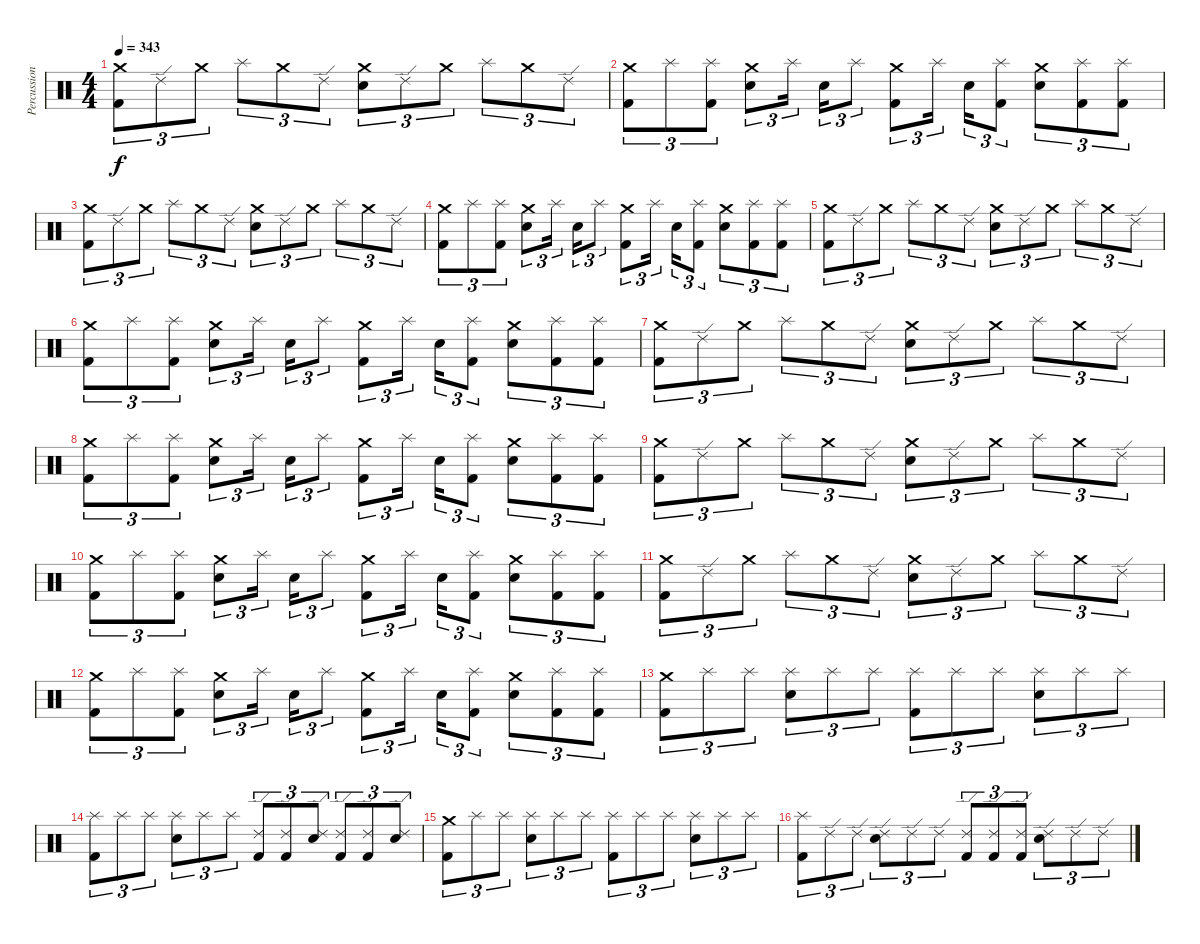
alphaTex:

\track ("Percussion" "Percussion") {instrument percussion}
\staff {score}
\articulation defaults
\ts (4 4)
\tempo 343
\clef neutral
\ks c
("Crash medium (hit)" "Kick (hit) 2").8{tu (3 2) dy f} "Ride (edge) 2".8{tu (3 2)} "Crash medium (hit)".8{tu (3 2)} "Splash (hit)".8{tu (3 2)} "Crash medium (hit)".8{tu (3 2)} "Ride (edge) 2".8{tu (3 2)} ("Crash medium (hit)" "Snare (hit) 2").8{tu (3 2)} "Ride (edge) 2".8{tu (3 2)} "Crash medium (hit)".8{tu (3 2)} "Splash (hit)".8{tu (3 2)} "Crash medium (hit)".8{tu (3 2)} "Ride (edge) 2".8{tu (3 2)} |
("Crash medium (hit)" "Kick (hit) 2").8{tu (3 2)} "Splash (hit)".8{tu (3 2)} ("Splash (hit)" "Kick (hit) 2").8{tu (3 2)} ("Crash medium (hit)" "Snare (hit) 2").8{tu (3 2)} "Splash (hit)".16{tu (3 2)} "Snare (hit) 2".16{tu (3 2)} "Splash (hit)".8{tu (3 2)} ("Crash medium (hit)" "Kick (hit) 2").8{tu (3 2)} "Splash (hit)".16{tu (3 2)} "Snare (hit) 2".16{tu (3 2)} ("Splash (hit)" "Kick (hit) 2").8{tu (3 2)} ("Crash medium (hit)" "Snare (hit) 2").8{tu (3 2)} ("Splash (hit)" "Kick (hit) 2").8{tu (3 2)} ("Splash (hit)" "Kick (hit) 2").8{tu (3 2)} |
("Crash medium (hit)" "Kick (hit) 2").8{tu (3 2)} "Ride (edge) 2".8{tu (3 2)} "Crash medium (hit)".8{tu (3 2)} "Splash (hit)".8{tu (3 2)} "Crash medium (hit)".8{tu (3 2)} "Ride (edge) 2".8{tu (3 2)} ("Crash medium (hit)" "Snare (hit) 2").8{tu (3 2)} "Ride (edge) 2".8{tu (3 2)} "Crash medium (hit)".8{tu (3 2)} "Splash (hit)".8{tu (3 2)} "Crash medium (hit)".8{tu (3 2)} "Ride (edge) 2".8{tu (3 2)} |
("Crash medium (hit)" "Kick (hit) 2").8{tu (3 2)} "Splash (hit)".8{tu (3 2)} ("Splash (hit)" "Kick (hit) 2").8{tu (3 2)} ("Crash medium (hit)" "Snare (hit) 2").8{tu (3 2)} "Splash (hit)".16{tu (3 2)} "Snare (hit) 2".16{tu (3 2)} "Splash (hit)".8{tu (3 2)} ("Crash medium (hit)" "Kick (hit) 2").8{tu (3 2)} "Splash (hit)".16{tu (3 2)} "Snare (hit) 2".16{tu (3 2)} ("Splash (hit)" "Kick (hit) 2").8{tu (3 2)} ("Crash medium (hit)" "Snare (hit) 2").8{tu (3 2)} ("Splash (hit)" "Kick (hit) 2").8{tu (3 2)} ("Splash (hit)" "Kick (hit) 2").8{tu (3 2)} |
("Crash medium (hit)" "Kick (hit) 2").8{tu (3 2)} "Ride (edge) 2".8{tu (3 2)} "Crash medium (hit)".8{tu (3 2)} "Splash (hit)".8{tu (3 2)} "Crash medium (hit)".8{tu (3 2)} "Ride (edge) 2".8{tu (3 2)} ("Crash medium (hit)" "Snare (hit) 2").8{tu (3 2)} "Ride (edge) 2".8{tu (3 2)} "Crash medium (hit)".8{tu (3 2)} "Splash (hit)".8{tu (3 2)} "Crash medium (hit)".8{tu (3 2)} "Ride (edge) 2".8{tu (3 2)} |
("Crash medium (hit)" "Kick (hit) 2").8{tu (3 2)} "Splash (hit)".8{tu (3 2)} ("Splash (hit)" "Kick (hit) 2").8{tu (3 2)} ("Crash medium (hit)" "Snare (hit) 2").8{tu (3 2)} "Splash (hit)".16{tu (3 2)} "Snare (hit) 2".16{tu (3 2)} "Splash (hit)".8{tu (3 2)} ("Crash medium (hit)" "Kick (hit) 2").8{tu (3 2)} "Splash (hit)".16{tu (3 2)} "Snare (hit) 2".16{tu (3 2)} ("Splash (hit)" "Kick (hit) 2").8{tu (3 2)} ("Crash medium (hit)" "Snare (hit) 2").8{tu (3 2)} ("Splash (hit)" "Kick (hit) 2").8{tu (3 2)} ("Splash (hit)" "Kick (hit) 2").8{tu (3 2)} |
("Crash medium (hit)" "Kick (hit) 2").8{tu (3 2)} "Ride (edge) 2".8{tu (3 2)} "Crash medium (hit)".8{tu (3 2)} "Splash (hit)".8{tu (3 2)} "Crash medium (hit)".8{tu (3 2)} "Ride (edge) 2".8{tu (3 2)} ("Crash medium (hit)" "Snare (hit) 2").8{tu (3 2)} "Ride (edge) 2".8{tu (3 2)} "Crash medium (hit)".8{tu (3 2)} "Splash (hit)".8{tu (3 2)} "Crash medium (hit)".8{tu (3 2)} "Ride (edge) 2".8{tu (3 2)} |
("Crash medium (hit)" "Kick (hit) 2").8{tu (3 2)} "Splash (hit)".8{tu (3 2)} ("Splash (hit)" "Kick (hit) 2").8{tu (3 2)} ("Crash medium (hit)" "Snare (hit) 2").8{tu (3 2)} "Splash (hit)".16{tu (3 2)} "Snare (hit) 2".16{tu (3 2)} "Splash (hit)".8{tu (3 2)} ("Crash medium (hit)" "Kick (hit) 2").8{tu (3 2)} "Splash (hit)".16{tu (3 2)} "Snare (hit) 2".16{tu (3 2)} ("Splash (hit)" "Kick (hit) 2").8{tu (3 2)} ("Crash medium (hit)" "Snare (hit) 2").8{tu (3 2)} ("Splash (hit)" "Kick (hit) 2").8{tu (3 2)} ("Splash (hit)" "Kick (hit) 2").8{tu (3 2)} |
("Crash medium (hit)" "Kick (hit) 2").8{tu (3 2)} "Ride (edge) 2".8{tu (3 2)} "Crash medium (hit)".8{tu (3 2)} "Splash (hit)".8{tu (3 2)} "Crash medium (hit)".8{tu (3 2)} "Ride (edge) 2".8{tu (3 2)} ("Crash medium (hit)" "Snare (hit) 2").8{tu (3 2)} "Ride (edge) 2".8{tu (3 2)} "Crash medium (hit)".8{tu (3 2)} "Splash (hit)".8{tu (3 2)} "Crash medium (hit)".8{tu (3 2)} "Ride (edge) 2".8{tu (3 2)} |
("Crash medium (hit)" "Kick (hit) 2").8{tu (3 2)} "Splash (hit)".8{tu (3 2)} ("Splash (hit)" "Kick (hit) 2").8{tu (3 2)} ("Crash medium (hit)" "Snare (hit) 2").8{tu (3 2)} "Splash (hit)".16{tu (3 2)} "Snare (hit) 2".16{tu (3 2)} "Splash (hit)".8{tu (3 2)} ("Crash medium (hit)" "Kick (hit) 2").8{tu (3 2)} "Splash (hit)".16{tu (3 2)} "Snare (hit) 2".16{tu (3 2)} ("Splash (hit)" "Kick (hit) 2").8{tu (3 2)} ("Crash medium (hit)" "Snare (hit) 2").8{tu (3 2)} ("Splash (hit)" "Kick (hit) 2").8{tu (3 2)} ("Splash (hit)" "Kick (hit) 2").8{tu (3 2)} |
("Crash medium (hit)" "Kick (hit) 2").8{tu (3 2)} "Ride (edge) 2".8{tu (3 2)} "Crash medium (hit)".8{tu (3 2)} "Splash (hit)".8{tu (3 2)} "Crash medium (hit)".8{tu (3 2)} "Ride (edge) 2".8{tu (3 2)} ("Crash medium (hit)" "Snare (hit) 2").8{tu (3 2)} "Ride (edge) 2".8{tu (3 2)} "Crash medium (hit)".8{tu (3 2)} "Splash (hit)".8{tu (3 2)} "Crash medium (hit)".8{tu (3 2)} "Ride (edge) 2".8{tu (3 2)} |
("Crash medium (hit)" "Kick (hit) 2").8{tu (3 2)} "Splash (hit)".8{tu (3 2)} ("Splash (hit)" "Kick (hit) 2").8{tu (3 2)} ("Crash medium (hit)" "Snare (hit) 2").8{tu (3 2)} "Splash (hit)".16{tu (3 2)} "Snare (hit) 2".16{tu (3 2)} "Splash (hit)".8{tu (3 2)} ("Crash medium (hit)" "Kick (hit) 2").8{tu (3 2)} "Splash (hit)".16{tu (3 2)} "Snare (hit) 2".16{tu (3 2)} ("Splash (hit)" "Kick (hit) 2").8{tu (3 2)} ("Crash medium (hit)" "Snare (hit) 2").8{tu (3 2)} ("Splash (hit)" "Kick (hit) 2").8{tu (3 2)} ("Splash (hit)" "Kick (hit) 2").8{tu (3 2)} |
("Crash medium (hit)" "Kick (hit) 2").8{tu (3 2)} "Splash (hit)".8{tu (3 2)} "Splash (hit)".8{tu (3 2)} ("Splash (hit)" "Snare (hit) 2").8{tu (3 2)} "Splash (hit)".8{tu (3 2)} "Splash (hit)".8{tu (3 2)} ("Splash (hit)" "Kick (hit) 2").8{tu (3 2)} "Splash (hit)".8{tu (3 2)} "Splash (hit)".8{tu (3 2)} ("Splash (hit)" "Snare (hit) 2").8{tu (3 2)} "Splash (hit)".8{tu (3 2)} "Splash (hit)".8{tu (3 2)} |
("Splash (hit)" "Kick (hit) 2").8{tu (3 2)} "Splash (hit)".8{tu (3 2)} "Splash (hit)".8{tu (3 2)} ("Splash (hit)" "Snare (hit) 2").8{tu (3 2)} "Splash (hit)".8{tu (3 2)} "Splash (hit)".8{tu (3 2)} ("Ride (edge) 2" "Kick (hit) 2").8{tu (3 2)} ("Ride (edge) 2" "Kick (hit) 2").8{tu (3 2)} ("Ride (edge) 2" "Snare (hit) 2").8{tu (3 2)} ("Ride (edge) 2" "Kick (hit) 2").8{tu (3 2)} ("Ride (edge) 2" "Kick (hit) 2").8{tu (3 2)} ("Ride (edge) 2" "Snare (hit) 2").8{tu (3 2)} |
("Crash medium (hit)" "Kick (hit) 2").8{tu (3 2)} "Splash (hit)".8{tu (3 2)} "Splash (hit)".8{tu (3 2)} ("Splash (hit)" "Snare (hit) 2").8{tu (3 2)} "Splash (hit)".8{tu (3 2)} "Splash (hit)".8{tu (3 2)} ("Splash (hit)" "Kick (hit) 2").8{tu (3 2)} "Splash (hit)".8{tu (3 2)} "Splash (hit)".8{tu (3 2)} ("Splash (hit)" "Snare (hit) 2").8{tu (3 2)} "Splash (hit)".8{tu (3 2)} "Splash (hit)".8{tu (3 2)} |
("Splash (hit)" "Kick (hit) 2").8{tu (3 2)} "Ride (edge) 2".8{tu (3 2)} "Ride (edge) 2".8{tu (3 2)} ("Ride (edge) 2" "Snare (hit) 2").8{tu (3 2)} "Ride (edge) 2".8{tu (3 2)} "Ride (edge) 2".8{tu (3 2)} ("Ride (edge) 2" "Kick (hit) 2").8{tu (3 2)} ("Ride (edge) 2" "Kick (hit) 2").8{tu (3 2)} ("Ride (edge) 2" "Kick (hit) 2").8{tu (3 2)} ("Ride (edge) 2" "Snare (hit) 2").8{tu (3 2)} "Ride (edge) 2".8{tu (3 2)} "Ride (edge) 2".8{tu (3 2)}
